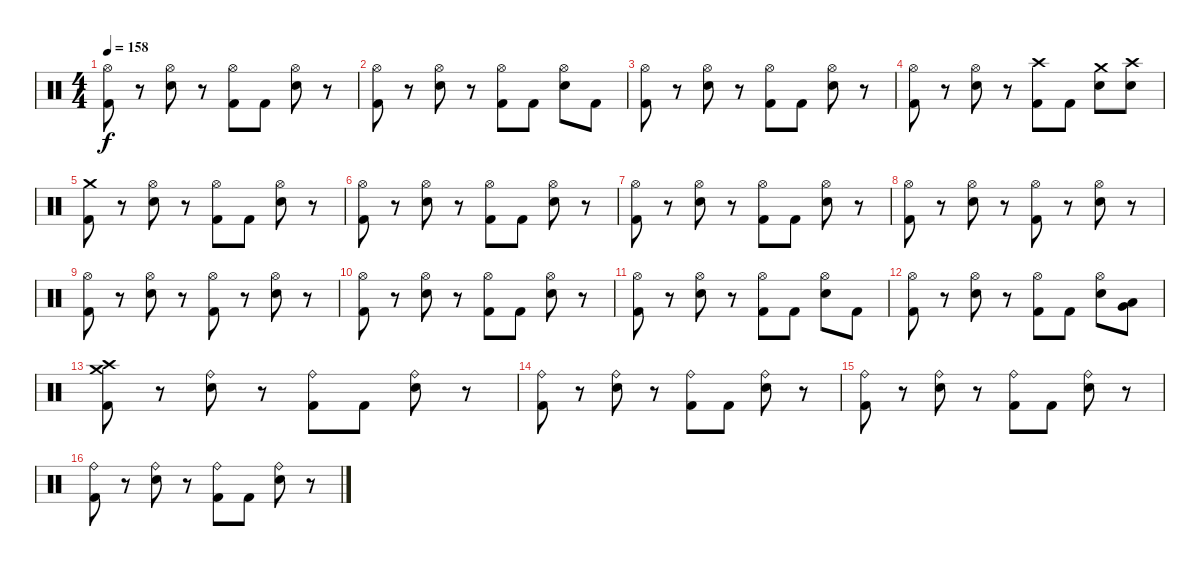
\track "" {instrument percussion}
\staff {score}
\articulation defaults
\ts (4 4)
\tempo 158
\clef neutral
\ks c
("Hi-Hat (open)" "Kick (hit) 2").8{dy f} r.8 ("Hi-Hat (open)" "Electric Snare (hit)").8 r.8 ("Hi-Hat (open)" "Kick (hit) 2").8 "Kick (hit) 2".8 ("Hi-Hat (open)" "Electric Snare (hit)").8 r.8 |
("Hi-Hat (open)" "Kick (hit) 2").8 r.8 ("Hi-Hat (open)" "Electric Snare (hit)").8 r.8 ("Hi-Hat (open)" "Kick (hit) 2").8 "Kick (hit) 2".8 ("Hi-Hat (open)" "Electric Snare (hit)").8 "Kick (hit) 2".8 |
("Hi-Hat (open)" "Kick (hit) 2").8 r.8 ("Hi-Hat (open)" "Electric Snare (hit)").8 r.8 ("Hi-Hat (open)" "Kick (hit) 2").8 "Kick (hit) 2".8 ("Hi-Hat (open)" "Electric Snare (hit)").8 r.8 |
("Hi-Hat (open)" "Kick (hit) 2").8 r.8 ("Hi-Hat (open)" "Electric Snare (hit)").8 r.8 ("Crash high (hit)" "Kick (hit) 2").8 "Kick (hit) 2".8 ("Crash medium (hit)" "Electric Snare (hit)").8 ("Crash high (hit)" "Electric Snare (hit)").8 |
("Crash medium (hit)" "Kick (hit) 2").8 r.8 ("Hi-Hat (open)" "Electric Snare (hit)").8 r.8 ("Hi-Hat (open)" "Kick (hit) 2").8 "Kick (hit) 2".8 ("Hi-Hat (open)" "Electric Snare (hit)").8 r.8 |
("Hi-Hat (open)" "Kick (hit) 2").8 r.8 ("Hi-Hat (open)" "Electric Snare (hit)").8 r.8 ("Hi-Hat (open)" "Kick (hit) 2").8 "Kick (hit) 2".8 ("Hi-Hat (open)" "Electric Snare (hit)").8 r.8 |
("Hi-Hat (open)" "Kick (hit) 2").8 r.8 ("Hi-Hat (open)" "Electric Snare (hit)").8 r.8 ("Hi-Hat (open)" "Kick (hit) 2").8 "Kick (hit) 2".8 ("Hi-Hat (open)" "Electric Snare (hit)").8 r.8 |
("Hi-Hat (open)" "Kick (hit) 2").8 r.8 ("Hi-Hat (open)" "Electric Snare (hit)").8 r.8 ("Hi-Hat (open)" "Kick (hit) 2").8 r.8 ("Hi-Hat (open)" "Electric Snare (hit)").8 r.8 |
("Hi-Hat (open)" "Kick (hit) 2").8 r.8 ("Hi-Hat (open)" "Electric Snare (hit)").8 r.8 ("Hi-Hat (open)" "Kick (hit) 2").8 r.8 ("Hi-Hat (open)" "Electric Snare (hit)").8 r.8 |
("Hi-Hat (open)" "Kick (hit) 2").8 r.8 ("Hi-Hat (open)" "Electric Snare (hit)").8 r.8 ("Hi-Hat (open)" "Kick (hit) 2").8 "Kick (hit) 2".8 ("Hi-Hat (open)" "Electric Snare (hit)").8 r.8 |
("Hi-Hat (open)" "Kick (hit) 2").8 r.8 ("Hi-Hat (open)" "Electric Snare (hit)").8 r.8 ("Hi-Hat (open)" "Kick (hit) 2").8 "Kick (hit) 2".8 ("Hi-Hat (open)" "Electric Snare (hit)").8 "Kick (hit) 2".8 |
("Hi-Hat (open)" "Kick (hit) 2").8 r.8 ("Hi-Hat (open)" "Electric Snare (hit)").8 r.8 ("Hi-Hat (open)" "Kick (hit) 2").8 "Kick (hit) 2".8 ("Hi-Hat (open)" "Electric Snare (hit)").8 ("Low Tom (hit)" "Very Low Tom (hit)").8 |
("Crash high (hit)" "Crash medium (hit)" "Kick (hit) 2").8 r.8 ("Ride (bell)" "Electric Snare (hit)").8 r.8 ("Ride (bell)" "Kick (hit) 2").8 "Kick (hit) 2".8 ("Ride (bell)" "Electric Snare (hit)").8 r.8 |
("Ride (bell)" "Kick (hit) 2").8 r.8 ("Ride (bell)" "Electric Snare (hit)").8 r.8 ("Ride (bell)" "Kick (hit) 2").8 "Kick (hit) 2".8 ("Ride (bell)" "Electric Snare (hit)").8 r.8 |
("Ride (bell)" "Kick (hit) 2").8 r.8 ("Ride (bell)" "Electric Snare (hit)").8 r.8 ("Ride (bell)" "Kick (hit) 2").8 "Kick (hit) 2".8 ("Ride (bell)" "Electric Snare (hit)").8 r.8 |
("Ride (bell)" "Kick (hit) 2").8 r.8 ("Ride (bell)" "Electric Snare (hit)").8 r.8 ("Ride (bell)" "Kick (hit) 2").8 "Kick (hit) 2".8 ("Ride (bell)" "Electric Snare (hit)").8 r.8
